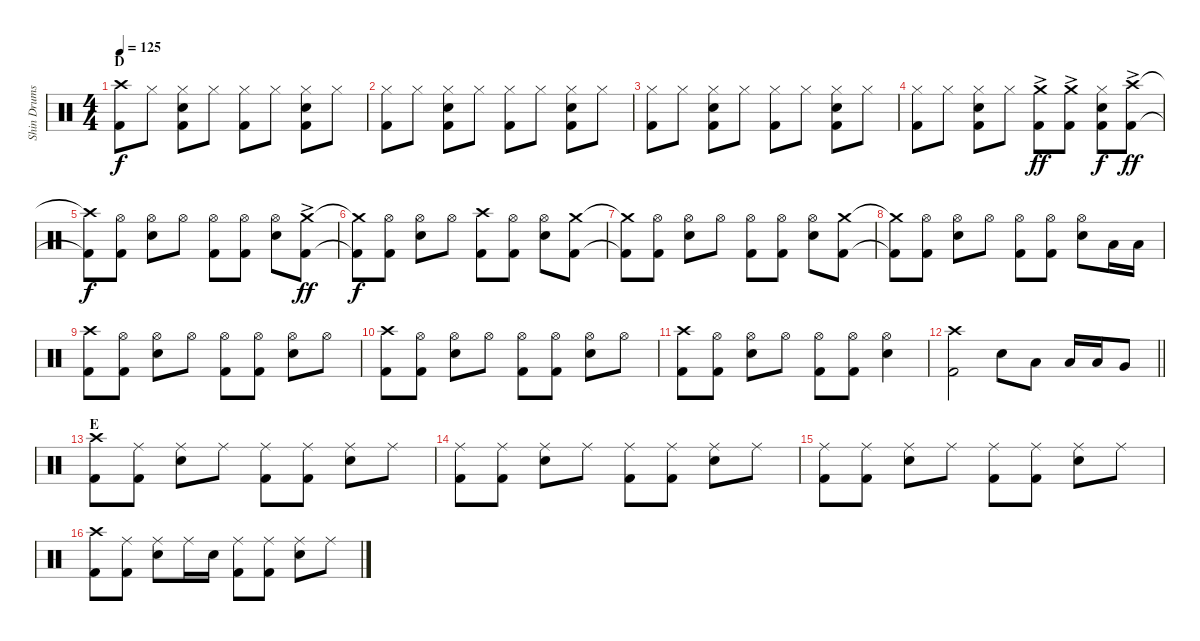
\track ("Shin Drums" "Shin Drums") {instrument percussion}
\staff {score}
\articulation defaults
\ts (4 4)
\section ("" "D")
\tempo 125
\clef neutral
\ks c
("Crash high (hit)" "Kick (hit) 2").8{dy f} "Hi-Hat (closed)".8 ("Hi-Hat (closed)" "Snare (hit) 2" "Kick (hit) 2").8 "Hi-Hat (closed)".8 ("Hi-Hat (closed)" "Kick (hit) 2").8 "Hi-Hat (closed)".8 ("Hi-Hat (closed)" "Snare (hit) 2" "Kick (hit) 2").8 "Hi-Hat (closed)".8 |
("Hi-Hat (closed)" "Kick (hit) 2").8 "Hi-Hat (closed)".8 ("Hi-Hat (closed)" "Snare (hit) 2" "Kick (hit) 2").8 "Hi-Hat (closed)".8 ("Hi-Hat (closed)" "Kick (hit) 2").8 "Hi-Hat (closed)".8 ("Hi-Hat (closed)" "Snare (hit) 2" "Kick (hit) 2").8 "Hi-Hat (closed)".8 |
("Hi-Hat (closed)" "Kick (hit) 2").8 "Hi-Hat (closed)".8 ("Hi-Hat (closed)" "Snare (hit) 2" "Kick (hit) 2").8 "Hi-Hat (closed)".8 ("Hi-Hat (closed)" "Kick (hit) 2").8 "Hi-Hat (closed)".8 ("Hi-Hat (closed)" "Snare (hit) 2" "Kick (hit) 2").8 "Hi-Hat (closed)".8 |
("Hi-Hat (closed)" "Kick (hit) 2").8 "Hi-Hat (closed)".8 ("Hi-Hat (closed)" "Snare (hit) 2" "Kick (hit) 2").8 "Hi-Hat (closed)".8 ("Crash medium (hit)"{ac} "Kick (hit) 2").8{dy ff} ("Crash medium (hit)"{ac} "Kick (hit) 2").8 ("Hi-Hat (closed)" "Snare (hit) 2" "Kick (hit) 2").8{dy f} ("Crash high (hit)"{ac} "Kick (hit) 2").8{dy ff} |
("Crash high (hit)"{t} "Kick (hit) 2"{t}).8{dy f} ("Hi-Hat (open)" "Kick (hit) 2").8 ("Hi-Hat (open)" "Snare (hit) 2").8 "Hi-Hat (open)".8 ("Hi-Hat (open)" "Kick (hit) 2").8 ("Hi-Hat (open)" "Kick (hit) 2").8 ("Hi-Hat (open)" "Snare (hit) 2").8 ("Crash medium (hit)"{ac} "Kick (hit) 2").8{dy ff} |
("Crash medium (hit)"{t} "Kick (hit) 2"{t}).8{dy f} ("Hi-Hat (open)" "Kick (hit) 2").8 ("Hi-Hat (open)" "Snare (hit) 2").8 "Hi-Hat (open)".8 ("Crash high (hit)" "Kick (hit) 2").8 ("Hi-Hat (open)" "Kick (hit) 2").8 ("Hi-Hat (open)" "Snare (hit) 2").8 ("Crash medium (hit)" "Kick (hit) 2").8 |
("Crash medium (hit)"{t} "Kick (hit) 2"{t}).8 ("Hi-Hat (open)" "Kick (hit) 2").8 ("Hi-Hat (open)" "Snare (hit) 2").8 "Hi-Hat (open)".8 ("Hi-Hat (open)" "Kick (hit) 2").8 ("Hi-Hat (open)" "Kick (hit) 2").8 ("Hi-Hat (open)" "Snare (hit) 2").8 ("Crash medium (hit)" "Kick (hit) 2").8 |
("Crash medium (hit)"{t} "Kick (hit) 2"{t}).8 ("Hi-Hat (open)" "Kick (hit) 2").8 ("Hi-Hat (open)" "Snare (hit) 2").8 "Hi-Hat (open)".8 ("Hi-Hat (open)" "Kick (hit) 2").8 ("Hi-Hat (open)" "Kick (hit) 2").8 ("Hi-Hat (open)" "Snare (hit) 2").8 "Low Tom (hit)".16 "Low Tom (hit)".16 |
("Crash high (hit)" "Kick (hit) 2").8 ("Hi-Hat (open)" "Kick (hit) 2").8 ("Hi-Hat (open)" "Snare (hit) 2").8 "Hi-Hat (open)".8 ("Hi-Hat (open)" "Kick (hit) 2").8 ("Hi-Hat (open)" "Kick (hit) 2").8 ("Hi-Hat (open)" "Snare (hit) 2").8 "Hi-Hat (open)".8 |
("Crash high (hit)" "Kick (hit) 2").8 ("Hi-Hat (open)" "Kick (hit) 2").8 ("Hi-Hat (open)" "Snare (hit) 2").8 "Hi-Hat (open)".8 ("Hi-Hat (open)" "Kick (hit) 2").8 ("Hi-Hat (open)" "Kick (hit) 2").8 ("Hi-Hat (open)" "Snare (hit) 2").8 "Hi-Hat (open)".8 |
("Crash high (hit)" "Kick (hit) 2").8 ("Hi-Hat (open)" "Kick (hit) 2").8 ("Hi-Hat (open)" "Snare (hit) 2").8 "Hi-Hat (open)".8 ("Hi-Hat (open)" "Kick (hit) 2").8 ("Hi-Hat (open)" "Kick (hit) 2").8 ("Hi-Hat (open)" "Snare (hit) 2").4 |
\barLineRight lightlight
("Crash high (hit)" "Kick (hit) 2").2 "Snare (hit) 2".8 "Low Tom (hit)".8 "Low Tom (hit)".16 "Low Tom (hit)".16 "Very Low Tom (hit)".8 |
\section ("" "E")
("Crash high (hit)" "Kick (hit) 2").8 ("Ride (middle)" "Kick (hit) 2").8 ("Ride (middle)" "Snare (hit) 2").8 "Ride (middle)".8 ("Ride (middle)" "Kick (hit) 2").8 ("Ride (middle)" "Kick (hit) 2").8 ("Ride (middle)" "Snare (hit) 2").8 "Ride (middle)".8 |
("Ride (middle)" "Kick (hit) 2").8 ("Ride (middle)" "Kick (hit) 2").8 ("Ride (middle)" "Snare (hit) 2").8 "Ride (middle)".8 ("Ride (middle)" "Kick (hit) 2").8 ("Ride (middle)" "Kick (hit) 2").8 ("Ride (middle)" "Snare (hit) 2").8 "Ride (middle)".8 |
("Ride (middle)" "Kick (hit) 2").8 ("Ride (middle)" "Kick (hit) 2").8 ("Ride (middle)" "Snare (hit) 2").8 "Ride (middle)".8 ("Ride (middle)" "Kick (hit) 2").8 ("Ride (middle)" "Kick (hit) 2").8 ("Ride (middle)" "Snare (hit) 2").8 "Ride (middle)".8 |
("Crash high (hit)" "Kick (hit) 2").8 ("Ride (middle)" "Kick (hit) 2").8 ("Ride (middle)" "Snare (hit) 2").8 "Ride (middle)".16 "Snare (hit) 2".16 ("Ride (middle)" "Kick (hit) 2").8 ("Ride (middle)" "Kick (hit) 2").8 ("Ride (middle)" "Snare (hit) 2").8 "Ride (middle)".8
